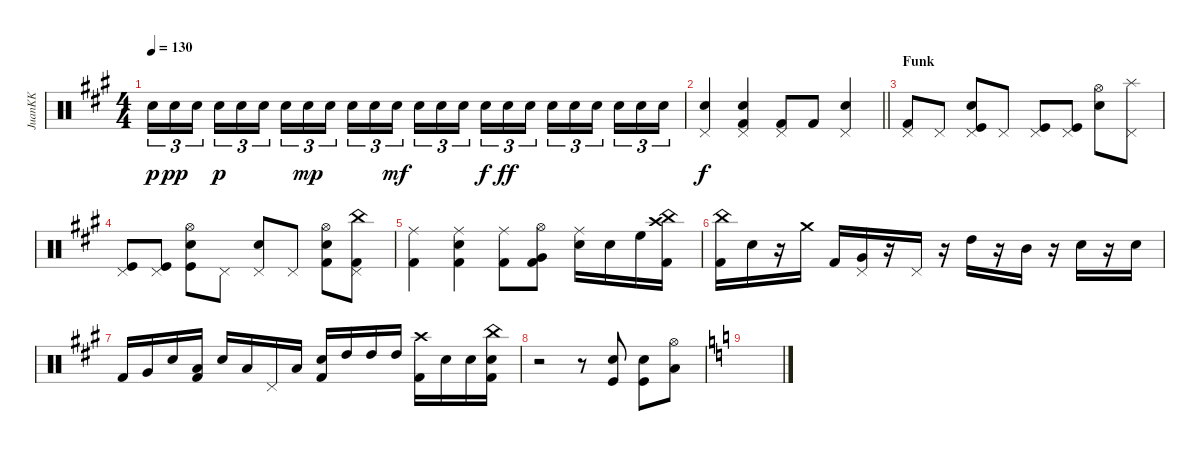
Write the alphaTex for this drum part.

\track ("JuanKK" "JuanKK") {instrument percussion}
\staff {score}
\articulation defaults
\ts (4 4)
\tempo 130
\clef neutral
\ks a "Electric Snare (hit)".16{tu (3 2) dy p} "Electric Snare (hit)".16{tu (3 2) dy pp} "Electric Snare (hit)".16{tu (3 2) beam splitsecondary} "Electric Snare (hit)".16{tu (3 2) dy p} "Electric Snare (hit)".16{tu (3 2)} "Electric Snare (hit)".16{tu (3 2)} "Electric Snare (hit)".16{tu (3 2)} "Electric Snare (hit)".16{tu (3 2) dy mp} "Electric Snare (hit)".16{tu (3 2) beam splitsecondary} "Electric Snare (hit)".16{tu (3 2)} "Electric Snare (hit)".16{tu (3 2)} "Electric Snare (hit)".16{tu (3 2) dy mf} "Electric Snare (hit)".16{tu (3 2)} "Electric Snare (hit)".16{tu (3 2)} "Electric Snare (hit)".16{tu (3 2) beam splitsecondary} "Electric Snare (hit)".16{tu (3 2) dy f} "Electric Snare (hit)".16{tu (3 2) dy ff} "Electric Snare (hit)".16{tu (3 2)} "Electric Snare (hit)".16{tu (3 2)} "Electric Snare (hit)".16{tu (3 2)} "Electric Snare (hit)".16{tu (3 2) beam splitsecondary} "Electric Snare (hit)".16{tu (3 2)} "Electric Snare (hit)".16{tu (3 2)} "Electric Snare (hit)".16{tu (3 2)}
|
\barLineRight lightlight
("Pedal Hi-Hat (hit)" "Electric Snare (hit)").4{dy f} ("Pedal Hi-Hat (hit)" "Kick (hit) 2" "Electric Snare (hit)").4 ("Pedal Hi-Hat (hit)" "Kick (hit) 2").8 "Kick (hit) 2".8 ("Pedal Hi-Hat (hit)" "Electric Snare (hit)").4 |
\section ("" "Funk")
("Pedal Hi-Hat (hit)" "Kick (hit) 2").8 "Pedal Hi-Hat (hit)".8 ("Pedal Hi-Hat (hit)" "Kick (hit)" "Electric Snare (hit)").8 "Pedal Hi-Hat (hit)".8 ("Pedal Hi-Hat (hit)" "Kick (hit)").8 ("Pedal Hi-Hat (hit)" "Kick (hit)").8 ("Hi-Hat (open)" "Electric Snare (hit)").8 ("Pedal Hi-Hat (hit)" "Splash (hit)").8 |
("Pedal Hi-Hat (hit)" "Kick (hit)").8 ("Pedal Hi-Hat (hit)" "Kick (hit)").8 ("Hi-Hat (open)" "Kick (hit)" "Electric Snare (hit)").8 "Pedal Hi-Hat (hit)".8 ("Pedal Hi-Hat (hit)" "Snare (hit) 2").8 "Pedal Hi-Hat (hit)".8 ("Hi-Hat (open)" "Kick (hit) 2" "Electric Snare (hit)").8 ("Pedal Hi-Hat (hit)" "Kick (hit) 2" "China (hit)").8 |
("Kick (hit) 2" "Ride (middle)").4 ("Kick (hit) 2" "Electric Snare (hit)" "Ride (middle)").4 ("Kick (hit) 2" "Ride (middle)").8 ("Very Low Tom (hit)" "Kick (hit) 2" "Hi-Hat (open)").8 ("Electric Snare (hit)" "Ride (middle)").16 "Electric Snare (hit)".16 "High Floor Tom (hit)".16 ("Kick (hit) 2" "Crash high (hit)" "China (hit)").16 |
("China (hit)" "Kick (hit) 2").16 "Electric Snare (hit)".16 r.16 "Crash medium (hit)".16 "Kick (hit) 2".16 ("Very Low Tom (hit)" "Pedal Hi-Hat (hit)").16 r.16 "Pedal Hi-Hat (hit)".16 r.16 "High Tom (hit)".16 r.16 "Mid Tom (hit)".16 r.16 "Electric Snare (hit)".16 r.16 "Electric Snare (hit)".16 |
"Kick (hit) 2".16 "Very Low Tom (hit)".16 "Electric Snare (hit)".16 ("Kick (hit) 2" "Low Tom (hit)").16 "Electric Snare (hit)".16 "Low Tom (hit)".16 "Pedal Hi-Hat (hit)".16 "Low Tom (hit)".16 ("Electric Snare (hit)" "Kick (hit) 2").16 "High Tom (hit)".16 "High Tom (hit)".16 "High Tom (hit)".16 ("Kick (hit) 2" "Crash high (hit)").16 "Electric Snare (hit)".16 "Electric Snare (hit)".16 ("Kick (hit) 2" "Electric Snare (hit)" "China (hit)").16 |
r.2 r.8 ("Kick (hit)" "Electric Snare (hit)").8 ("Kick (hit)" "Electric Snare (hit)").8 ("Hi-Hat (open)" "Low Floor Tom (hit)").8 |
\ks c
